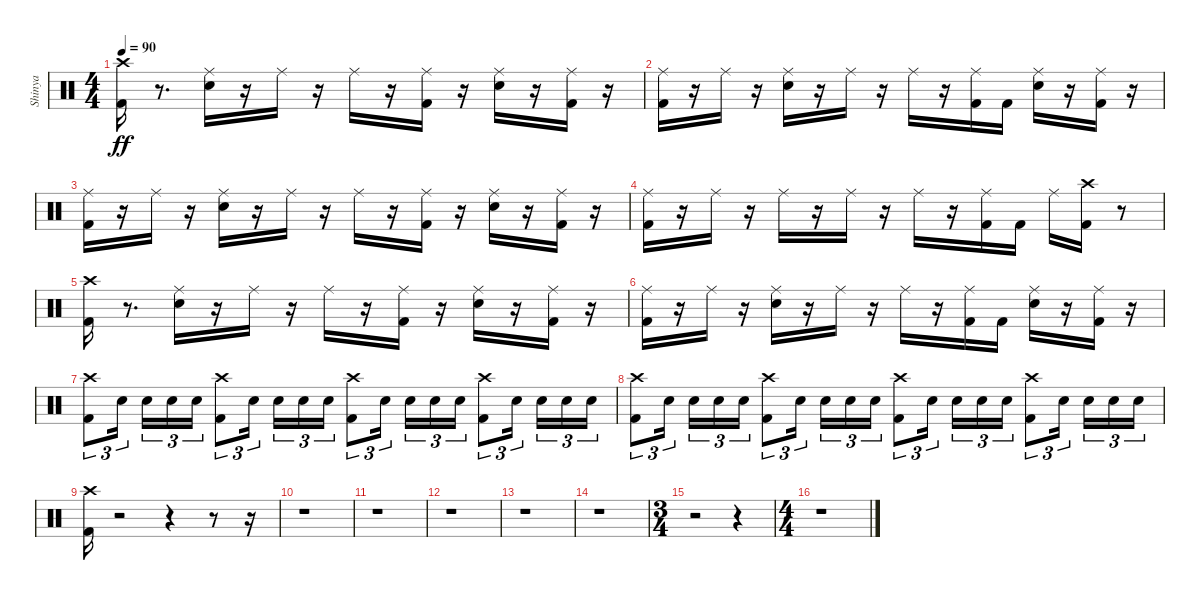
\track ("Shinya" "Shinya") {instrument percussion}
\staff {score}
\articulation defaults
\ts (4 4)
\tempo 90
\clef neutral
\ks c
("Crash high (hit)" "Kick (hit) 2").16{dy ff} r.8{d} ("Snare (hit) 2" "Ride (middle)").16 r.16 "Ride (middle)".16 r.16 "Ride (middle)".16 r.16 ("Ride (middle)" "Kick (hit) 2").16 r.16 ("Snare (hit) 2" "Ride (middle)").16 r.16 ("Ride (middle)" "Kick (hit) 2").16 r.16 |
("Ride (middle)" "Kick (hit) 2").16 r.16 "Ride (middle)".16 r.16 ("Snare (hit) 2" "Ride (middle)").16 r.16 "Ride (middle)".16 r.16 "Ride (middle)".16 r.16 ("Ride (middle)" "Kick (hit) 2").16 "Kick (hit) 2".16 ("Snare (hit) 2" "Ride (middle)").16 r.16 ("Ride (middle)" "Kick (hit) 2").16 r.16 |
("Ride (middle)" "Kick (hit) 2").16 r.16 "Ride (middle)".16 r.16 ("Snare (hit) 2" "Ride (middle)").16 r.16 "Ride (middle)".16 r.16 "Ride (middle)".16 r.16 ("Ride (middle)" "Kick (hit) 2").16 r.16 ("Snare (hit) 2" "Ride (middle)").16 r.16 ("Ride (middle)" "Kick (hit) 2").16 r.16 |
("Ride (middle)" "Kick (hit) 2").16 r.16 "Ride (middle)".16 r.16 "Ride (middle)".16 r.16 "Ride (middle)".16 r.16 "Ride (middle)".16 r.16 ("Ride (middle)" "Kick (hit) 2").16 "Kick (hit) 2".16 "Ride (middle)".16 ("Crash high (hit)" "Kick (hit) 2").16 r.8 |
("Crash high (hit)" "Kick (hit) 2").16 r.8{d} ("Snare (hit) 2" "Ride (middle)").16 r.16 "Ride (middle)".16 r.16 "Ride (middle)".16 r.16 ("Kick (hit) 2" "Ride (middle)").16 r.16 ("Snare (hit) 2" "Ride (middle)").16 r.16 ("Ride (middle)" "Kick (hit) 2").16 r.16 |
("Ride (middle)" "Kick (hit) 2").16 r.16 "Ride (middle)".16 r.16 ("Snare (hit) 2" "Ride (middle)").16 r.16 "Ride (middle)".16 r.16 "Ride (middle)".16 r.16 ("Ride (middle)" "Kick (hit) 2").16 "Kick (hit) 2".16 ("Snare (hit) 2" "Ride (middle)").16 r.16 ("Ride (middle)" "Kick (hit) 2").16 r.16 |
("Crash high (hit)" "Kick (hit) 2").8{tu (3 2)} "Snare (hit) 2".16{tu (3 2)} "Snare (hit) 2".16{tu (3 2)} "Snare (hit) 2".16{tu (3 2)} "Snare (hit) 2".16{tu (3 2)} ("Crash high (hit)" "Kick (hit) 2").8{tu (3 2)} "Snare (hit) 2".16{tu (3 2)} "Snare (hit) 2".16{tu (3 2)} "Snare (hit) 2".16{tu (3 2)} "Snare (hit) 2".16{tu (3 2)} ("Crash high (hit)" "Kick (hit) 2").8{tu (3 2)} "Snare (hit) 2".16{tu (3 2)} "Snare (hit) 2".16{tu (3 2)} "Snare (hit) 2".16{tu (3 2)} "Snare (hit) 2".16{tu (3 2)} ("Crash high (hit)" "Kick (hit) 2").8{tu (3 2)} "Snare (hit) 2".16{tu (3 2)} "Snare (hit) 2".16{tu (3 2)} "Snare (hit) 2".16{tu (3 2)} "Snare (hit) 2".16{tu (3 2)} |
("Crash high (hit)" "Kick (hit) 2").8{tu (3 2)} "Snare (hit) 2".16{tu (3 2)} "Snare (hit) 2".16{tu (3 2)} "Snare (hit) 2".16{tu (3 2)} "Snare (hit) 2".16{tu (3 2)} ("Crash high (hit)" "Kick (hit) 2").8{tu (3 2)} "Snare (hit) 2".16{tu (3 2)} "Snare (hit) 2".16{tu (3 2)} "Snare (hit) 2".16{tu (3 2)} "Snare (hit) 2".16{tu (3 2)} ("Crash high (hit)" "Kick (hit) 2").8{tu (3 2)} "Snare (hit) 2".16{tu (3 2)} "Snare (hit) 2".16{tu (3 2)} "Snare (hit) 2".16{tu (3 2)} "Snare (hit) 2".16{tu (3 2)} ("Crash high (hit)" "Kick (hit) 2").8{tu (3 2)} "Snare (hit) 2".16{tu (3 2)} "Snare (hit) 2".16{tu (3 2)} "Snare (hit) 2".16{tu (3 2)} "Snare (hit) 2".16{tu (3 2)} |
("Crash high (hit)" "Kick (hit) 2").16 r.2 r.4 r.8 r.16 |
r.1 |
r.1 |
r.1 |
r.1 |
r.1 |
\ts (3 4)
r.2 r.4 |
\ts (4 4)
r.1
